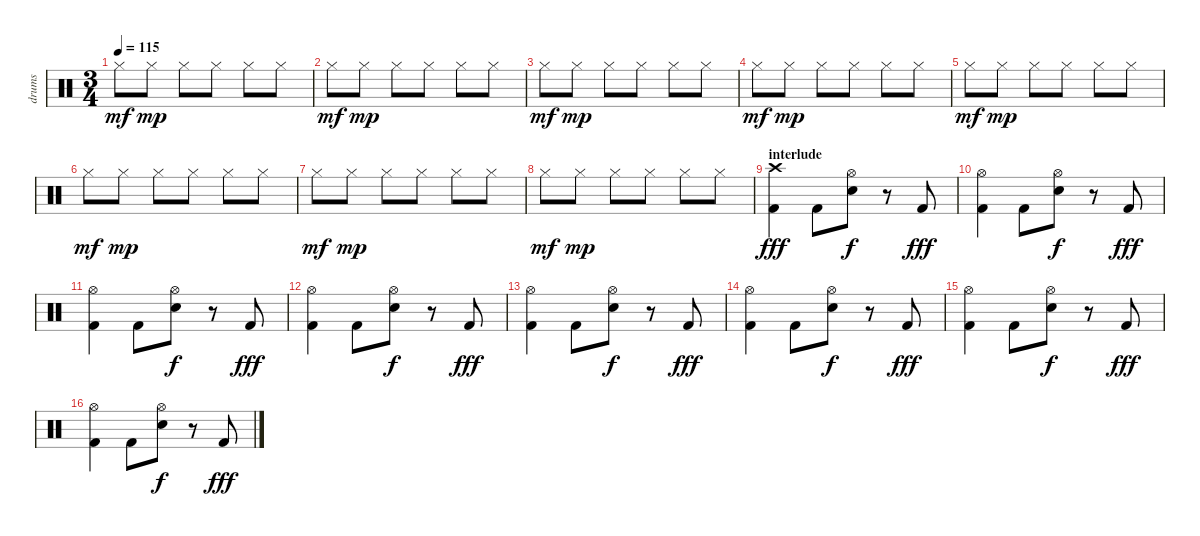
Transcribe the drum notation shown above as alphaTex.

\track ("drums" "drums") {instrument percussion}
\staff {score}
\articulation defaults
\ts (3 4)
\tempo 115
\clef neutral
\ks c "Hi-Hat (closed)".8{dy mf} "Hi-Hat (closed)".8{dy mp} "Hi-Hat (closed)".8 "Hi-Hat (closed)".8 "Hi-Hat (closed)".8 "Hi-Hat (closed)".8
|
"Hi-Hat (closed)".8{dy mf} "Hi-Hat (closed)".8{dy mp} "Hi-Hat (closed)".8 "Hi-Hat (closed)".8 "Hi-Hat (closed)".8 "Hi-Hat (closed)".8 |
"Hi-Hat (closed)".8{dy mf} "Hi-Hat (closed)".8{dy mp} "Hi-Hat (closed)".8 "Hi-Hat (closed)".8 "Hi-Hat (closed)".8 "Hi-Hat (closed)".8 |
"Hi-Hat (closed)".8{dy mf} "Hi-Hat (closed)".8{dy mp} "Hi-Hat (closed)".8 "Hi-Hat (closed)".8 "Hi-Hat (closed)".8 "Hi-Hat (closed)".8 |
"Hi-Hat (closed)".8{dy mf} "Hi-Hat (closed)".8{dy mp} "Hi-Hat (closed)".8 "Hi-Hat (closed)".8 "Hi-Hat (closed)".8 "Hi-Hat (closed)".8 |
"Hi-Hat (closed)".8{dy mf} "Hi-Hat (closed)".8{dy mp} "Hi-Hat (closed)".8 "Hi-Hat (closed)".8 "Hi-Hat (closed)".8 "Hi-Hat (closed)".8 |
"Hi-Hat (closed)".8{dy mf} "Hi-Hat (closed)".8{dy mp} "Hi-Hat (closed)".8 "Hi-Hat (closed)".8 "Hi-Hat (closed)".8 "Hi-Hat (closed)".8 |
"Hi-Hat (closed)".8{dy mf} "Hi-Hat (closed)".8{dy mp} "Hi-Hat (closed)".8 "Hi-Hat (closed)".8 "Hi-Hat (closed)".8 "Hi-Hat (closed)".8 |
\section ("" "interlude")
("Crash high (hit)" "Kick (hit) 2").4{dy fff} "Kick (hit) 2".8 ("Hi-Hat (open)" "Snare (hit) 2").8{dy f} r.8 "Kick (hit) 2".8{dy fff} |
("Hi-Hat (open)" "Kick (hit) 2").4 "Kick (hit) 2".8 ("Hi-Hat (open)" "Snare (hit) 2").8{dy f} r.8 "Kick (hit) 2".8{dy fff} |
("Hi-Hat (open)" "Kick (hit) 2").4 "Kick (hit) 2".8 ("Hi-Hat (open)" "Snare (hit) 2").8{dy f} r.8 "Kick (hit) 2".8{dy fff} |
("Hi-Hat (open)" "Kick (hit) 2").4 "Kick (hit) 2".8 ("Hi-Hat (open)" "Snare (hit) 2").8{dy f} r.8 "Kick (hit) 2".8{dy fff} |
("Hi-Hat (open)" "Kick (hit) 2").4 "Kick (hit) 2".8 ("Hi-Hat (open)" "Snare (hit) 2").8{dy f} r.8 "Kick (hit) 2".8{dy fff} |
("Hi-Hat (open)" "Kick (hit) 2").4 "Kick (hit) 2".8 ("Hi-Hat (open)" "Snare (hit) 2").8{dy f} r.8 "Kick (hit) 2".8{dy fff} |
("Hi-Hat (open)" "Kick (hit) 2").4 "Kick (hit) 2".8 ("Hi-Hat (open)" "Snare (hit) 2").8{dy f} r.8 "Kick (hit) 2".8{dy fff} |
("Hi-Hat (open)" "Kick (hit) 2").4 "Kick (hit) 2".8 ("Hi-Hat (open)" "Snare (hit) 2").8{dy f} r.8 "Kick (hit) 2".8{dy fff}
